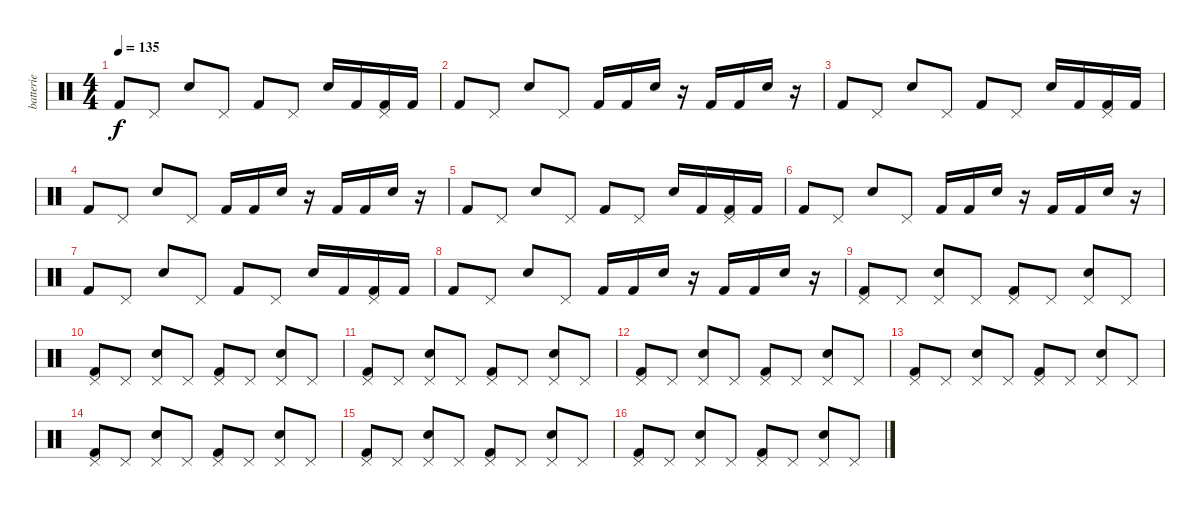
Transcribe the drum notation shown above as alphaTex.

\track ("batterie" "batterie") {instrument percussion}
\staff {score}
\articulation defaults
\ts (4 4)
\tempo 135
\clef neutral
\ks c "Kick (hit) 2".8{dy f} "Pedal Hi-Hat (hit)".8 "Snare (hit) 2".8 "Pedal Hi-Hat (hit)".8 "Kick (hit) 2".8 "Pedal Hi-Hat (hit)".8 "Snare (hit) 2".16 "Kick (hit) 2".16
("Kick (hit) 2" "Pedal Hi-Hat (hit)").16 "Kick (hit) 2".16 |
"Kick (hit) 2".8 "Pedal Hi-Hat (hit)".8 "Snare (hit) 2".8 "Pedal Hi-Hat (hit)".8 "Kick (hit) 2".16 "Kick (hit) 2".16 "Snare (hit) 2".16 r.16 "Kick (hit) 2".16 "Kick (hit) 2".16 "Snare (hit) 2".16 r.16 |
"Kick (hit) 2".8 "Pedal Hi-Hat (hit)".8 "Snare (hit) 2".8 "Pedal Hi-Hat (hit)".8 "Kick (hit) 2".8 "Pedal Hi-Hat (hit)".8 "Snare (hit) 2".16 "Kick (hit) 2".16 ("Kick (hit) 2" "Pedal Hi-Hat (hit)").16 "Kick (hit) 2".16 |
"Kick (hit) 2".8 "Pedal Hi-Hat (hit)".8 "Snare (hit) 2".8 "Pedal Hi-Hat (hit)".8 "Kick (hit) 2".16 "Kick (hit) 2".16 "Snare (hit) 2".16 r.16 "Kick (hit) 2".16 "Kick (hit) 2".16 "Snare (hit) 2".16 r.16 |
"Kick (hit) 2".8 "Pedal Hi-Hat (hit)".8 "Snare (hit) 2".8 "Pedal Hi-Hat (hit)".8 "Kick (hit) 2".8 "Pedal Hi-Hat (hit)".8 "Snare (hit) 2".16 "Kick (hit) 2".16 ("Kick (hit) 2" "Pedal Hi-Hat (hit)").16 "Kick (hit) 2".16 |
"Kick (hit) 2".8 "Pedal Hi-Hat (hit)".8 "Snare (hit) 2".8 "Pedal Hi-Hat (hit)".8 "Kick (hit) 2".16 "Kick (hit) 2".16 "Snare (hit) 2".16 r.16 "Kick (hit) 2".16 "Kick (hit) 2".16 "Snare (hit) 2".16 r.16 |
"Kick (hit) 2".8 "Pedal Hi-Hat (hit)".8 "Snare (hit) 2".8 "Pedal Hi-Hat (hit)".8 "Kick (hit) 2".8 "Pedal Hi-Hat (hit)".8 "Snare (hit) 2".16 "Kick (hit) 2".16 ("Kick (hit) 2" "Pedal Hi-Hat (hit)").16 "Kick (hit) 2".16 |
"Kick (hit) 2".8 "Pedal Hi-Hat (hit)".8 "Snare (hit) 2".8 "Pedal Hi-Hat (hit)".8 "Kick (hit) 2".16 "Kick (hit) 2".16 "Snare (hit) 2".16 r.16 "Kick (hit) 2".16 "Kick (hit) 2".16 "Snare (hit) 2".16 r.16 |
("Kick (hit) 2" "Pedal Hi-Hat (hit)").8 "Pedal Hi-Hat (hit)".8 ("Snare (hit) 2" "Pedal Hi-Hat (hit)").8 "Pedal Hi-Hat (hit)".8 ("Kick (hit) 2" "Pedal Hi-Hat (hit)").8 "Pedal Hi-Hat (hit)".8 ("Snare (hit) 2" "Pedal Hi-Hat (hit)").8 "Pedal Hi-Hat (hit)".8 |
("Kick (hit) 2" "Pedal Hi-Hat (hit)").8 "Pedal Hi-Hat (hit)".8 ("Snare (hit) 2" "Pedal Hi-Hat (hit)").8 "Pedal Hi-Hat (hit)".8 ("Kick (hit) 2" "Pedal Hi-Hat (hit)").8 "Pedal Hi-Hat (hit)".8 ("Snare (hit) 2" "Pedal Hi-Hat (hit)").8 "Pedal Hi-Hat (hit)".8 |
("Kick (hit) 2" "Pedal Hi-Hat (hit)").8 "Pedal Hi-Hat (hit)".8 ("Snare (hit) 2" "Pedal Hi-Hat (hit)").8 "Pedal Hi-Hat (hit)".8 ("Kick (hit) 2" "Pedal Hi-Hat (hit)").8 "Pedal Hi-Hat (hit)".8 ("Snare (hit) 2" "Pedal Hi-Hat (hit)").8 "Pedal Hi-Hat (hit)".8 |
("Kick (hit) 2" "Pedal Hi-Hat (hit)").8 "Pedal Hi-Hat (hit)".8 ("Snare (hit) 2" "Pedal Hi-Hat (hit)").8 "Pedal Hi-Hat (hit)".8 ("Kick (hit) 2" "Pedal Hi-Hat (hit)").8 "Pedal Hi-Hat (hit)".8 ("Snare (hit) 2" "Pedal Hi-Hat (hit)").8 "Pedal Hi-Hat (hit)".8 |
("Kick (hit) 2" "Pedal Hi-Hat (hit)").8 "Pedal Hi-Hat (hit)".8 ("Snare (hit) 2" "Pedal Hi-Hat (hit)").8 "Pedal Hi-Hat (hit)".8 ("Kick (hit) 2" "Pedal Hi-Hat (hit)").8 "Pedal Hi-Hat (hit)".8 ("Snare (hit) 2" "Pedal Hi-Hat (hit)").8 "Pedal Hi-Hat (hit)".8 |
("Kick (hit) 2" "Pedal Hi-Hat (hit)").8 "Pedal Hi-Hat (hit)".8 ("Snare (hit) 2" "Pedal Hi-Hat (hit)").8 "Pedal Hi-Hat (hit)".8 ("Kick (hit) 2" "Pedal Hi-Hat (hit)").8 "Pedal Hi-Hat (hit)".8 ("Snare (hit) 2" "Pedal Hi-Hat (hit)").8 "Pedal Hi-Hat (hit)".8 |
("Kick (hit) 2" "Pedal Hi-Hat (hit)").8 "Pedal Hi-Hat (hit)".8 ("Snare (hit) 2" "Pedal Hi-Hat (hit)").8 "Pedal Hi-Hat (hit)".8 ("Kick (hit) 2" "Pedal Hi-Hat (hit)").8 "Pedal Hi-Hat (hit)".8 ("Snare (hit) 2" "Pedal Hi-Hat (hit)").8 "Pedal Hi-Hat (hit)".8 |
("Kick (hit) 2" "Pedal Hi-Hat (hit)").8 "Pedal Hi-Hat (hit)".8 ("Snare (hit) 2" "Pedal Hi-Hat (hit)").8 "Pedal Hi-Hat (hit)".8 ("Kick (hit) 2" "Pedal Hi-Hat (hit)").8 "Pedal Hi-Hat (hit)".8 ("Snare (hit) 2" "Pedal Hi-Hat (hit)").8 "Pedal Hi-Hat (hit)".8
